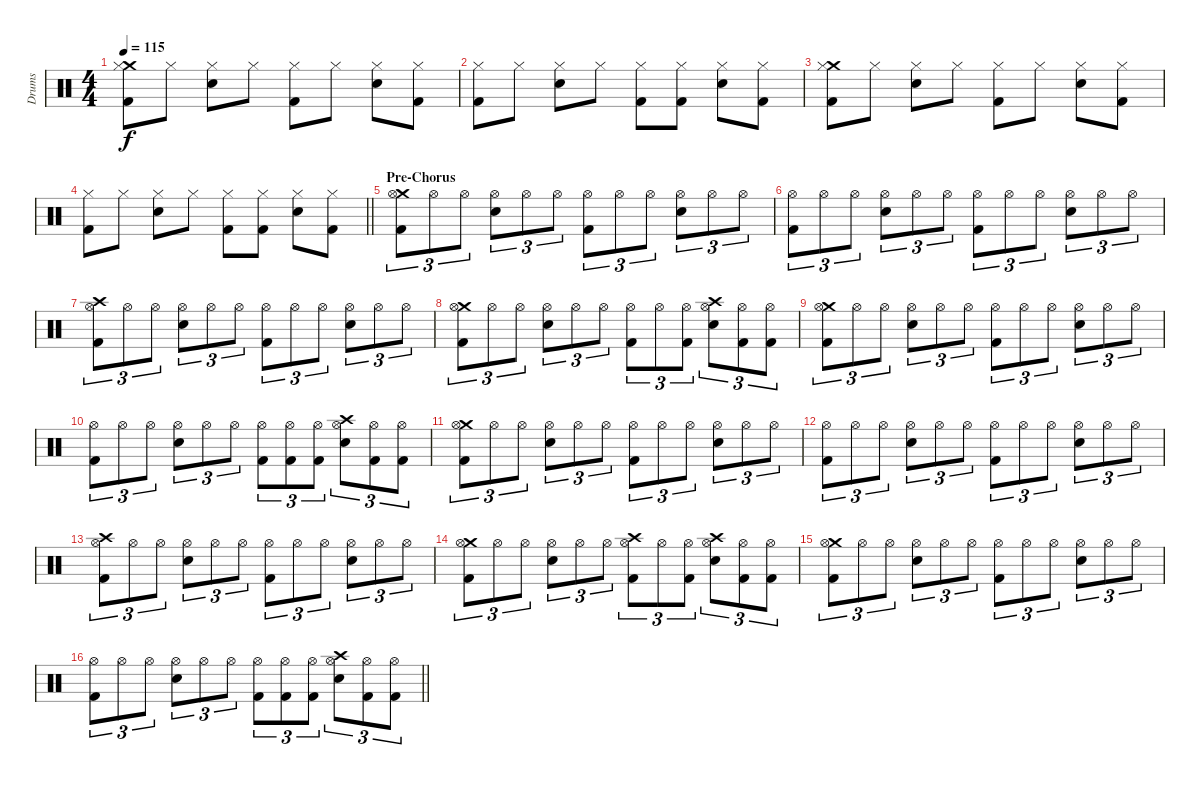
\track ("Drums" "Drums") {instrument percussion}
\staff {score}
\articulation defaults
\ts (4 4)
\tempo 115
\clef neutral
\ks c
("Crash medium (hit)" "Hi-Hat (closed)" "Kick (hit) 2").8{dy f} "Hi-Hat (closed)".8 ("Hi-Hat (closed)" "Snare (hit) 2").8 "Hi-Hat (closed)".8 ("Hi-Hat (closed)" "Kick (hit) 2").8 "Hi-Hat (closed)".8 ("Hi-Hat (closed)" "Snare (hit) 2").8 ("Hi-Hat (closed)" "Kick (hit) 2").8 |
("Hi-Hat (closed)" "Kick (hit) 2").8 "Hi-Hat (closed)".8 ("Hi-Hat (closed)" "Snare (hit) 2").8 "Hi-Hat (closed)".8 ("Hi-Hat (closed)" "Kick (hit) 2").8 ("Hi-Hat (closed)" "Kick (hit) 2").8 ("Hi-Hat (closed)" "Snare (hit) 2").8 ("Hi-Hat (closed)" "Kick (hit) 2").8 |
("Crash medium (hit)" "Hi-Hat (closed)" "Kick (hit) 2").8 "Hi-Hat (closed)".8 ("Hi-Hat (closed)" "Snare (hit) 2").8 "Hi-Hat (closed)".8 ("Hi-Hat (closed)" "Kick (hit) 2").8 "Hi-Hat (closed)".8 ("Hi-Hat (closed)" "Snare (hit) 2").8 ("Hi-Hat (closed)" "Kick (hit) 2").8 |
\barLineRight lightlight
("Hi-Hat (closed)" "Kick (hit) 2").8 "Hi-Hat (closed)".8 ("Hi-Hat (closed)" "Snare (hit) 2").8 "Hi-Hat (closed)".8 ("Hi-Hat (closed)" "Kick (hit) 2").8 ("Hi-Hat (closed)" "Kick (hit) 2").8 ("Hi-Hat (closed)" "Snare (hit) 2").8 ("Hi-Hat (closed)" "Kick (hit) 2").8 |
\section ("" "Pre-Chorus")
("Crash medium (hit)" "Hi-Hat (open)" "Kick (hit) 2").8{tu (3 2)} "Hi-Hat (open)".8{tu (3 2)} "Hi-Hat (open)".8{tu (3 2)} ("Hi-Hat (open)" "Snare (hit) 2").8{tu (3 2)} "Hi-Hat (open)".8{tu (3 2)} "Hi-Hat (open)".8{tu (3 2)} ("Hi-Hat (open)" "Kick (hit) 2").8{tu (3 2)} "Hi-Hat (open)".8{tu (3 2)} "Hi-Hat (open)".8{tu (3 2)} ("Hi-Hat (open)" "Snare (hit) 2").8{tu (3 2)} "Hi-Hat (open)".8{tu (3 2)} "Hi-Hat (open)".8{tu (3 2)} |
("Hi-Hat (open)" "Kick (hit) 2").8{tu (3 2)} "Hi-Hat (open)".8{tu (3 2)} "Hi-Hat (open)".8{tu (3 2)} ("Hi-Hat (open)" "Snare (hit) 2").8{tu (3 2)} "Hi-Hat (open)".8{tu (3 2)} "Hi-Hat (open)".8{tu (3 2)} ("Hi-Hat (open)" "Kick (hit) 2").8{tu (3 2)} "Hi-Hat (open)".8{tu (3 2)} "Hi-Hat (open)".8{tu (3 2)} ("Hi-Hat (open)" "Snare (hit) 2").8{tu (3 2)} "Hi-Hat (open)".8{tu (3 2)} "Hi-Hat (open)".8{tu (3 2)} |
("Crash high (hit)" "Hi-Hat (open)" "Kick (hit) 2").8{tu (3 2)} "Hi-Hat (open)".8{tu (3 2)} "Hi-Hat (open)".8{tu (3 2)} ("Hi-Hat (open)" "Snare (hit) 2").8{tu (3 2)} "Hi-Hat (open)".8{tu (3 2)} "Hi-Hat (open)".8{tu (3 2)} ("Hi-Hat (open)" "Kick (hit) 2").8{tu (3 2)} "Hi-Hat (open)".8{tu (3 2)} "Hi-Hat (open)".8{tu (3 2)} ("Hi-Hat (open)" "Snare (hit) 2").8{tu (3 2)} "Hi-Hat (open)".8{tu (3 2)} "Hi-Hat (open)".8{tu (3 2)} |
("Crash medium (hit)" "Hi-Hat (open)" "Kick (hit) 2").8{tu (3 2)} "Hi-Hat (open)".8{tu (3 2)} "Hi-Hat (open)".8{tu (3 2)} ("Hi-Hat (open)" "Snare (hit) 2").8{tu (3 2)} "Hi-Hat (open)".8{tu (3 2)} "Hi-Hat (open)".8{tu (3 2)} ("Hi-Hat (open)" "Kick (hit) 2").8{tu (3 2)} "Hi-Hat (open)".8{tu (3 2)} ("Hi-Hat (open)" "Kick (hit) 2").8{tu (3 2)} ("Crash high (hit)" "Hi-Hat (open)" "Snare (hit) 2").8{tu (3 2)} ("Hi-Hat (open)" "Kick (hit) 2").8{tu (3 2)} ("Hi-Hat (open)" "Kick (hit) 2").8{tu (3 2)} |
("Crash medium (hit)" "Hi-Hat (open)" "Kick (hit) 2").8{tu (3 2)} "Hi-Hat (open)".8{tu (3 2)} "Hi-Hat (open)".8{tu (3 2)} ("Hi-Hat (open)" "Snare (hit) 2").8{tu (3 2)} "Hi-Hat (open)".8{tu (3 2)} "Hi-Hat (open)".8{tu (3 2)} ("Hi-Hat (open)" "Kick (hit) 2").8{tu (3 2)} "Hi-Hat (open)".8{tu (3 2)} "Hi-Hat (open)".8{tu (3 2)} ("Hi-Hat (open)" "Snare (hit) 2").8{tu (3 2)} "Hi-Hat (open)".8{tu (3 2)} "Hi-Hat (open)".8{tu (3 2)} |
("Hi-Hat (open)" "Kick (hit) 2").8{tu (3 2)} "Hi-Hat (open)".8{tu (3 2)} "Hi-Hat (open)".8{tu (3 2)} ("Hi-Hat (open)" "Snare (hit) 2").8{tu (3 2)} "Hi-Hat (open)".8{tu (3 2)} "Hi-Hat (open)".8{tu (3 2)} ("Hi-Hat (open)" "Kick (hit) 2").8{tu (3 2)} ("Hi-Hat (open)" "Kick (hit) 2").8{tu (3 2)} ("Hi-Hat (open)" "Kick (hit) 2").8{tu (3 2)} ("Crash high (hit)" "Hi-Hat (open)" "Snare (hit) 2").8{tu (3 2)} ("Hi-Hat (open)" "Kick (hit) 2").8{tu (3 2)} ("Hi-Hat (open)" "Kick (hit) 2").8{tu (3 2)} |
("Crash medium (hit)" "Hi-Hat (open)" "Kick (hit) 2").8{tu (3 2)} "Hi-Hat (open)".8{tu (3 2)} "Hi-Hat (open)".8{tu (3 2)} ("Hi-Hat (open)" "Snare (hit) 2").8{tu (3 2)} "Hi-Hat (open)".8{tu (3 2)} "Hi-Hat (open)".8{tu (3 2)} ("Hi-Hat (open)" "Kick (hit) 2").8{tu (3 2)} "Hi-Hat (open)".8{tu (3 2)} "Hi-Hat (open)".8{tu (3 2)} ("Hi-Hat (open)" "Snare (hit) 2").8{tu (3 2)} "Hi-Hat (open)".8{tu (3 2)} "Hi-Hat (open)".8{tu (3 2)} |
("Hi-Hat (open)" "Kick (hit) 2").8{tu (3 2)} "Hi-Hat (open)".8{tu (3 2)} "Hi-Hat (open)".8{tu (3 2)} ("Hi-Hat (open)" "Snare (hit) 2").8{tu (3 2)} "Hi-Hat (open)".8{tu (3 2)} "Hi-Hat (open)".8{tu (3 2)} ("Hi-Hat (open)" "Kick (hit) 2").8{tu (3 2)} "Hi-Hat (open)".8{tu (3 2)} "Hi-Hat (open)".8{tu (3 2)} ("Hi-Hat (open)" "Snare (hit) 2").8{tu (3 2)} "Hi-Hat (open)".8{tu (3 2)} "Hi-Hat (open)".8{tu (3 2)} |
("Crash high (hit)" "Hi-Hat (open)" "Kick (hit) 2").8{tu (3 2)} "Hi-Hat (open)".8{tu (3 2)} "Hi-Hat (open)".8{tu (3 2)} ("Hi-Hat (open)" "Snare (hit) 2").8{tu (3 2)} "Hi-Hat (open)".8{tu (3 2)} "Hi-Hat (open)".8{tu (3 2)} ("Hi-Hat (open)" "Kick (hit) 2").8{tu (3 2)} "Hi-Hat (open)".8{tu (3 2)} "Hi-Hat (open)".8{tu (3 2)} ("Hi-Hat (open)" "Snare (hit) 2").8{tu (3 2)} "Hi-Hat (open)".8{tu (3 2)} "Hi-Hat (open)".8{tu (3 2)} |
("Crash medium (hit)" "Hi-Hat (open)" "Kick (hit) 2").8{tu (3 2)} "Hi-Hat (open)".8{tu (3 2)} "Hi-Hat (open)".8{tu (3 2)} ("Hi-Hat (open)" "Snare (hit) 2").8{tu (3 2)} "Hi-Hat (open)".8{tu (3 2)} "Hi-Hat (open)".8{tu (3 2)} ("Crash high (hit)" "Hi-Hat (open)" "Kick (hit) 2").8{tu (3 2)} "Hi-Hat (open)".8{tu (3 2)} ("Hi-Hat (open)" "Kick (hit) 2").8{tu (3 2)} ("Crash high (hit)" "Hi-Hat (open)" "Snare (hit) 2").8{tu (3 2)} ("Hi-Hat (open)" "Kick (hit) 2").8{tu (3 2)} ("Hi-Hat (open)" "Kick (hit) 2").8{tu (3 2)} |
("Crash medium (hit)" "Hi-Hat (open)" "Kick (hit) 2").8{tu (3 2)} "Hi-Hat (open)".8{tu (3 2)} "Hi-Hat (open)".8{tu (3 2)} ("Hi-Hat (open)" "Snare (hit) 2").8{tu (3 2)} "Hi-Hat (open)".8{tu (3 2)} "Hi-Hat (open)".8{tu (3 2)} ("Hi-Hat (open)" "Kick (hit) 2").8{tu (3 2)} "Hi-Hat (open)".8{tu (3 2)} "Hi-Hat (open)".8{tu (3 2)} ("Hi-Hat (open)" "Snare (hit) 2").8{tu (3 2)} "Hi-Hat (open)".8{tu (3 2)} "Hi-Hat (open)".8{tu (3 2)} |
\barLineRight lightlight
("Hi-Hat (open)" "Kick (hit) 2").8{tu (3 2)} "Hi-Hat (open)".8{tu (3 2)} "Hi-Hat (open)".8{tu (3 2)} ("Hi-Hat (open)" "Snare (hit) 2").8{tu (3 2)} "Hi-Hat (open)".8{tu (3 2)} "Hi-Hat (open)".8{tu (3 2)} ("Hi-Hat (open)" "Kick (hit) 2").8{tu (3 2)} ("Hi-Hat (open)" "Kick (hit) 2").8{tu (3 2)} ("Hi-Hat (open)" "Kick (hit) 2").8{tu (3 2)} ("Crash high (hit)" "Hi-Hat (open)" "Snare (hit) 2").8{tu (3 2)} ("Hi-Hat (open)" "Kick (hit) 2").8{tu (3 2)} ("Hi-Hat (open)" "Kick (hit) 2").8{tu (3 2)}
